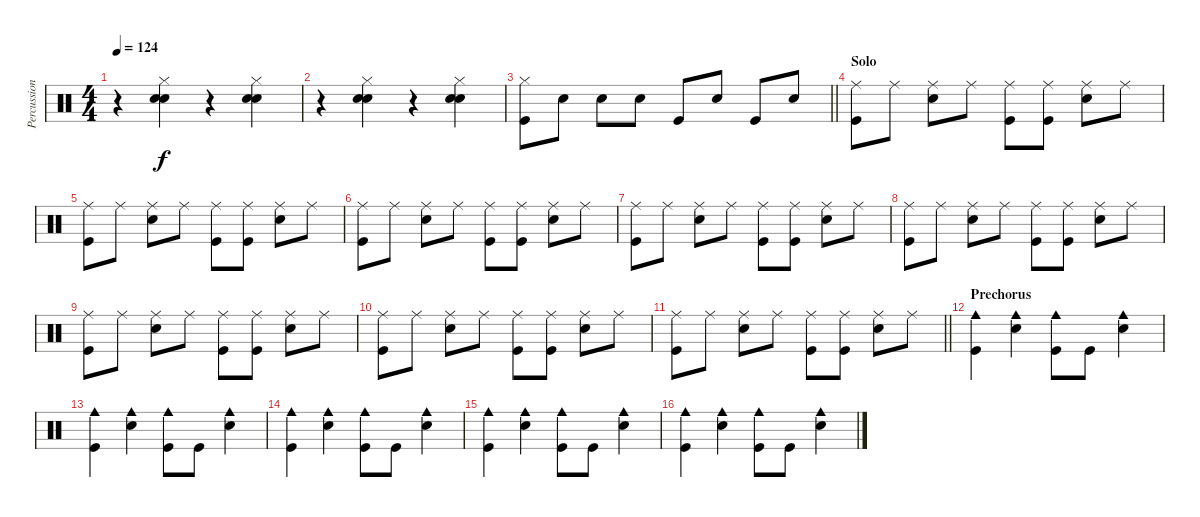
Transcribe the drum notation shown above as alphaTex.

\track ("Percussion" "Percussion") {solo instrument percussion}
\staff {score}
\articulation defaults
\ts (4 4)
\tempo 124
\clef neutral
\ks c
r.4{dy f} ("Snare (hit) 2" "Electric Snare (hit)" "Hi-Hat (closed)").4 r.4 ("Snare (hit) 2" "Electric Snare (hit)" "Hi-Hat (closed)").4 |
r.4 ("Snare (hit) 2" "Electric Snare (hit)" "Hi-Hat (closed)").4 r.4 ("Snare (hit) 2" "Electric Snare (hit)" "Hi-Hat (closed)").4 |
\barLineRight lightlight
("Hi-Hat (closed)" "Kick (hit)").8 "Electric Snare (hit)".8 "Electric Snare (hit)".8 "Electric Snare (hit)".8 "Kick (hit)".8 "Electric Snare (hit)".8 "Kick (hit)".8 "Electric Snare (hit)".8 |
\section ("" "Solo")
("Ride (middle)" "Kick (hit)").8 "Ride (middle)".8 ("Ride (middle)" "Electric Snare (hit)").8 "Ride (middle)".8 ("Ride (middle)" "Kick (hit)").8 ("Ride (middle)" "Kick (hit)").8 ("Ride (middle)" "Electric Snare (hit)").8 "Ride (middle)".8 |
("Ride (middle)" "Kick (hit)").8 "Ride (middle)".8 ("Ride (middle)" "Electric Snare (hit)").8 "Ride (middle)".8 ("Ride (middle)" "Kick (hit)").8 ("Ride (middle)" "Kick (hit)").8 ("Ride (middle)" "Electric Snare (hit)").8 "Ride (middle)".8 |
("Ride (middle)" "Kick (hit)").8 "Ride (middle)".8 ("Ride (middle)" "Electric Snare (hit)").8 "Ride (middle)".8 ("Ride (middle)" "Kick (hit)").8 ("Ride (middle)" "Kick (hit)").8 ("Ride (middle)" "Electric Snare (hit)").8 "Ride (middle)".8 |
("Ride (middle)" "Kick (hit)").8 "Ride (middle)".8 ("Ride (middle)" "Electric Snare (hit)").8 "Ride (middle)".8 ("Ride (middle)" "Kick (hit)").8 ("Ride (middle)" "Kick (hit)").8 ("Ride (middle)" "Electric Snare (hit)").8 "Ride (middle)".8 |
("Ride (middle)" "Kick (hit)").8 "Ride (middle)".8 ("Ride (middle)" "Electric Snare (hit)").8 "Ride (middle)".8 ("Ride (middle)" "Kick (hit)").8 ("Ride (middle)" "Kick (hit)").8 ("Ride (middle)" "Electric Snare (hit)").8 "Ride (middle)".8 |
("Ride (middle)" "Kick (hit)").8 "Ride (middle)".8 ("Ride (middle)" "Electric Snare (hit)").8 "Ride (middle)".8 ("Ride (middle)" "Kick (hit)").8 ("Ride (middle)" "Kick (hit)").8 ("Ride (middle)" "Electric Snare (hit)").8 "Ride (middle)".8 |
("Ride (middle)" "Kick (hit)").8 "Ride (middle)".8 ("Ride (middle)" "Electric Snare (hit)").8 "Ride (middle)".8 ("Ride (middle)" "Kick (hit)").8 ("Ride (middle)" "Kick (hit)").8 ("Ride (middle)" "Electric Snare (hit)").8 "Ride (middle)".8 |
\barLineRight lightlight
("Ride (middle)" "Kick (hit)").8 "Ride (middle)".8 ("Ride (middle)" "Electric Snare (hit)").8 "Ride (middle)".8 ("Ride (middle)" "Kick (hit)").8 ("Ride (middle)" "Kick (hit)").8 ("Ride (middle)" "Electric Snare (hit)").8 "Ride (middle)".8 |
\section ("" "Prechorus")
("Cowbell medium (hit)" "Kick (hit)").4 ("Cowbell medium (hit)" "Electric Snare (hit)").4 ("Cowbell medium (hit)" "Kick (hit)").8 "Kick (hit)".8 ("Cowbell medium (hit)" "Electric Snare (hit)").4 |
("Cowbell medium (hit)" "Kick (hit)").4 ("Cowbell medium (hit)" "Electric Snare (hit)").4 ("Cowbell medium (hit)" "Kick (hit)").8 "Kick (hit)".8 ("Cowbell medium (hit)" "Electric Snare (hit)").4 |
("Cowbell medium (hit)" "Kick (hit)").4 ("Cowbell medium (hit)" "Electric Snare (hit)").4 ("Cowbell medium (hit)" "Kick (hit)").8 "Kick (hit)".8 ("Cowbell medium (hit)" "Electric Snare (hit)").4 |
("Cowbell medium (hit)" "Kick (hit)").4 ("Cowbell medium (hit)" "Electric Snare (hit)").4 ("Cowbell medium (hit)" "Kick (hit)").8 "Kick (hit)".8 ("Cowbell medium (hit)" "Electric Snare (hit)").4 |
("Cowbell medium (hit)" "Kick (hit)").4 ("Cowbell medium (hit)" "Electric Snare (hit)").4 ("Cowbell medium (hit)" "Kick (hit)").8 "Kick (hit)".8 ("Cowbell medium (hit)" "Electric Snare (hit)").4
